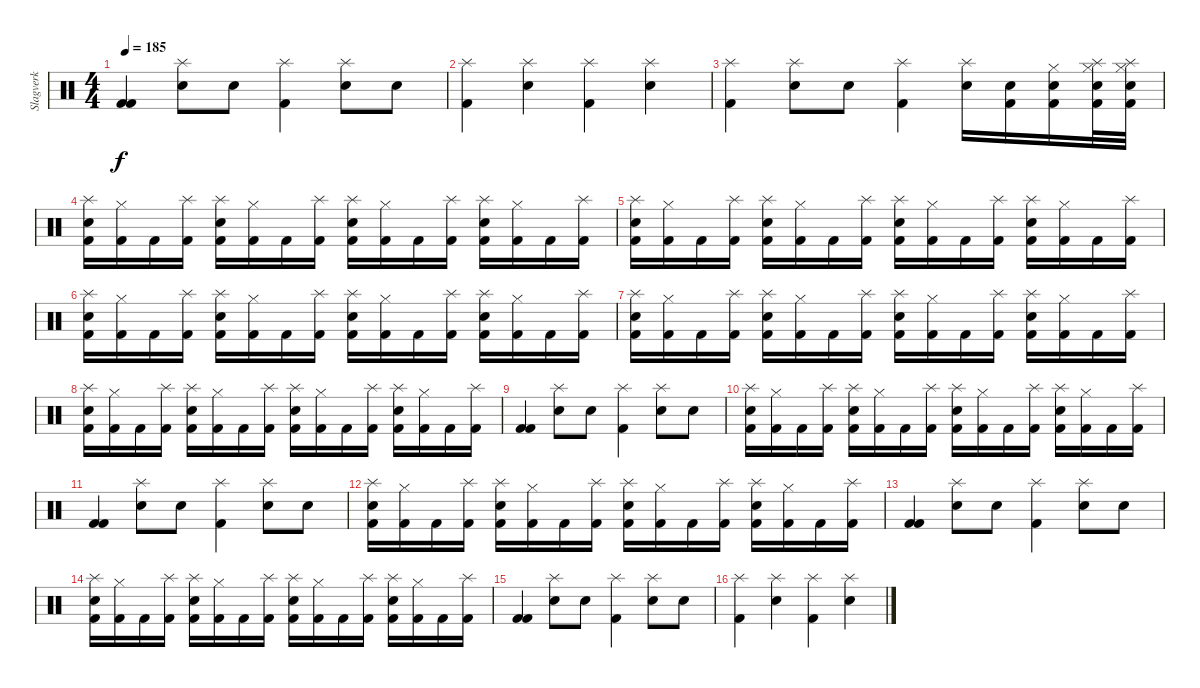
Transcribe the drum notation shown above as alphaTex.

\track ("Slagverk" "Slagverk") {instrument percussion}
\staff {score}
\articulation defaults
\ts (4 4)
\tempo 185
\clef neutral
\ks c
("Kick (hit) 2" "Kick (hit) 2").4{dy f} ("Splash (hit)" "Electric Snare (hit)").8 "Electric Snare (hit)".8 ("Splash (hit)" "Kick (hit) 2").4 ("Splash (hit)" "Electric Snare (hit)").8 "Electric Snare (hit)".8 |
("Splash (hit)" "Kick (hit) 2").4 ("Splash (hit)" "Electric Snare (hit)").4 ("Splash (hit)" "Kick (hit) 2").4 ("Splash (hit)" "Electric Snare (hit)").4 |
("Splash (hit)" "Kick (hit) 2").4 ("Splash (hit)" "Electric Snare (hit)").8 "Electric Snare (hit)".8 ("Splash (hit)" "Kick (hit) 2").4 ("Splash (hit)" "Electric Snare (hit)").16 ("Kick (hit) 2" "Electric Snare (hit)").16 ("Kick (hit) 2" "Electric Snare (hit)" "Hi-Hat (closed)").16 ("Kick (hit) 2" "Electric Snare (hit)" "Hi-Hat (closed)" "Splash (hit)").32 ("Kick (hit) 2" "Electric Snare (hit)" "Hi-Hat (closed)" "Splash (hit)").32 |
("Kick (hit) 2" "Electric Snare (hit)" "Splash (hit)").16 ("Kick (hit) 2" "Hi-Hat (closed)").16 "Kick (hit) 2".16 ("Kick (hit) 2" "Splash (hit)").16 ("Kick (hit) 2" "Electric Snare (hit)" "Splash (hit)").16 ("Kick (hit) 2" "Hi-Hat (closed)").16 "Kick (hit) 2".16 ("Kick (hit) 2" "Splash (hit)").16 ("Kick (hit) 2" "Electric Snare (hit)" "Splash (hit)").16 ("Kick (hit) 2" "Hi-Hat (closed)").16 "Kick (hit) 2".16 ("Kick (hit) 2" "Splash (hit)").16 ("Kick (hit) 2" "Electric Snare (hit)" "Splash (hit)").16 ("Kick (hit) 2" "Hi-Hat (closed)").16 "Kick (hit) 2".16 ("Kick (hit) 2" "Splash (hit)").16 |
("Kick (hit) 2" "Electric Snare (hit)" "Splash (hit)").16 ("Kick (hit) 2" "Hi-Hat (closed)").16 "Kick (hit) 2".16 ("Kick (hit) 2" "Splash (hit)").16 ("Kick (hit) 2" "Electric Snare (hit)" "Splash (hit)").16 ("Kick (hit) 2" "Hi-Hat (closed)").16 "Kick (hit) 2".16 ("Kick (hit) 2" "Splash (hit)").16 ("Kick (hit) 2" "Electric Snare (hit)" "Splash (hit)").16 ("Kick (hit) 2" "Hi-Hat (closed)").16 "Kick (hit) 2".16 ("Kick (hit) 2" "Splash (hit)").16 ("Kick (hit) 2" "Electric Snare (hit)" "Splash (hit)").16 ("Kick (hit) 2" "Hi-Hat (closed)").16 "Kick (hit) 2".16 ("Kick (hit) 2" "Splash (hit)").16 |
("Kick (hit) 2" "Electric Snare (hit)" "Splash (hit)").16 ("Kick (hit) 2" "Hi-Hat (closed)").16 "Kick (hit) 2".16 ("Kick (hit) 2" "Splash (hit)").16 ("Kick (hit) 2" "Electric Snare (hit)" "Splash (hit)").16 ("Kick (hit) 2" "Hi-Hat (closed)").16 "Kick (hit) 2".16 ("Kick (hit) 2" "Splash (hit)").16 ("Kick (hit) 2" "Electric Snare (hit)" "Splash (hit)").16 ("Kick (hit) 2" "Hi-Hat (closed)").16 "Kick (hit) 2".16 ("Kick (hit) 2" "Splash (hit)").16 ("Kick (hit) 2" "Electric Snare (hit)" "Splash (hit)").16 ("Kick (hit) 2" "Hi-Hat (closed)").16 "Kick (hit) 2".16 ("Kick (hit) 2" "Splash (hit)").16 |
("Kick (hit) 2" "Electric Snare (hit)" "Splash (hit)").16 ("Kick (hit) 2" "Hi-Hat (closed)").16 "Kick (hit) 2".16 ("Kick (hit) 2" "Splash (hit)").16 ("Kick (hit) 2" "Electric Snare (hit)" "Splash (hit)").16 ("Kick (hit) 2" "Hi-Hat (closed)").16 "Kick (hit) 2".16 ("Kick (hit) 2" "Splash (hit)").16 ("Kick (hit) 2" "Electric Snare (hit)" "Splash (hit)").16 ("Kick (hit) 2" "Hi-Hat (closed)").16 "Kick (hit) 2".16 ("Kick (hit) 2" "Splash (hit)").16 ("Kick (hit) 2" "Electric Snare (hit)" "Splash (hit)").16 ("Kick (hit) 2" "Hi-Hat (closed)").16 "Kick (hit) 2".16 ("Kick (hit) 2" "Splash (hit)").16 |
("Kick (hit) 2" "Electric Snare (hit)" "Splash (hit)").16 ("Kick (hit) 2" "Hi-Hat (closed)").16 "Kick (hit) 2".16 ("Kick (hit) 2" "Splash (hit)").16 ("Kick (hit) 2" "Electric Snare (hit)" "Splash (hit)").16 ("Kick (hit) 2" "Hi-Hat (closed)").16 "Kick (hit) 2".16 ("Kick (hit) 2" "Splash (hit)").16 ("Kick (hit) 2" "Electric Snare (hit)" "Splash (hit)").16 ("Kick (hit) 2" "Hi-Hat (closed)").16 "Kick (hit) 2".16 ("Kick (hit) 2" "Splash (hit)").16 ("Kick (hit) 2" "Electric Snare (hit)" "Splash (hit)").16 ("Kick (hit) 2" "Hi-Hat (closed)").16 "Kick (hit) 2".16 ("Kick (hit) 2" "Splash (hit)").16 |
("Kick (hit) 2" "Kick (hit) 2").4 ("Splash (hit)" "Electric Snare (hit)").8 "Electric Snare (hit)".8 ("Splash (hit)" "Kick (hit) 2").4 ("Splash (hit)" "Electric Snare (hit)").8 "Electric Snare (hit)".8 |
("Kick (hit) 2" "Electric Snare (hit)" "Splash (hit)").16 ("Kick (hit) 2" "Hi-Hat (closed)").16 "Kick (hit) 2".16 ("Kick (hit) 2" "Splash (hit)").16 ("Kick (hit) 2" "Electric Snare (hit)" "Splash (hit)").16 ("Kick (hit) 2" "Hi-Hat (closed)").16 "Kick (hit) 2".16 ("Kick (hit) 2" "Splash (hit)").16 ("Kick (hit) 2" "Electric Snare (hit)" "Splash (hit)").16 ("Kick (hit) 2" "Hi-Hat (closed)").16 "Kick (hit) 2".16 ("Kick (hit) 2" "Splash (hit)").16 ("Kick (hit) 2" "Electric Snare (hit)" "Splash (hit)").16 ("Kick (hit) 2" "Hi-Hat (closed)").16 "Kick (hit) 2".16 ("Kick (hit) 2" "Splash (hit)").16 |
("Kick (hit) 2" "Kick (hit) 2").4 ("Splash (hit)" "Electric Snare (hit)").8 "Electric Snare (hit)".8 ("Splash (hit)" "Kick (hit) 2").4 ("Splash (hit)" "Electric Snare (hit)").8 "Electric Snare (hit)".8 |
("Kick (hit) 2" "Electric Snare (hit)" "Splash (hit)").16 ("Kick (hit) 2" "Hi-Hat (closed)").16 "Kick (hit) 2".16 ("Kick (hit) 2" "Splash (hit)").16 ("Kick (hit) 2" "Electric Snare (hit)" "Splash (hit)").16 ("Kick (hit) 2" "Hi-Hat (closed)").16 "Kick (hit) 2".16 ("Kick (hit) 2" "Splash (hit)").16 ("Kick (hit) 2" "Electric Snare (hit)" "Splash (hit)").16 ("Kick (hit) 2" "Hi-Hat (closed)").16 "Kick (hit) 2".16 ("Kick (hit) 2" "Splash (hit)").16 ("Kick (hit) 2" "Electric Snare (hit)" "Splash (hit)").16 ("Kick (hit) 2" "Hi-Hat (closed)").16 "Kick (hit) 2".16 ("Kick (hit) 2" "Splash (hit)").16 |
("Kick (hit) 2" "Kick (hit) 2").4 ("Splash (hit)" "Electric Snare (hit)").8 "Electric Snare (hit)".8 ("Splash (hit)" "Kick (hit) 2").4 ("Splash (hit)" "Electric Snare (hit)").8 "Electric Snare (hit)".8 |
("Kick (hit) 2" "Electric Snare (hit)" "Splash (hit)").16 ("Kick (hit) 2" "Hi-Hat (closed)").16 "Kick (hit) 2".16 ("Kick (hit) 2" "Splash (hit)").16 ("Kick (hit) 2" "Electric Snare (hit)" "Splash (hit)").16 ("Kick (hit) 2" "Hi-Hat (closed)").16 "Kick (hit) 2".16 ("Kick (hit) 2" "Splash (hit)").16 ("Kick (hit) 2" "Electric Snare (hit)" "Splash (hit)").16 ("Kick (hit) 2" "Hi-Hat (closed)").16 "Kick (hit) 2".16 ("Kick (hit) 2" "Splash (hit)").16 ("Kick (hit) 2" "Electric Snare (hit)" "Splash (hit)").16 ("Kick (hit) 2" "Hi-Hat (closed)").16 "Kick (hit) 2".16 ("Kick (hit) 2" "Splash (hit)").16 |
("Kick (hit) 2" "Kick (hit) 2").4 ("Splash (hit)" "Electric Snare (hit)").8 "Electric Snare (hit)".8 ("Splash (hit)" "Kick (hit) 2").4 ("Splash (hit)" "Electric Snare (hit)").8 "Electric Snare (hit)".8 |
("Splash (hit)" "Kick (hit) 2").4 ("Splash (hit)" "Electric Snare (hit)").4 ("Splash (hit)" "Kick (hit) 2").4 ("Splash (hit)" "Electric Snare (hit)").4
